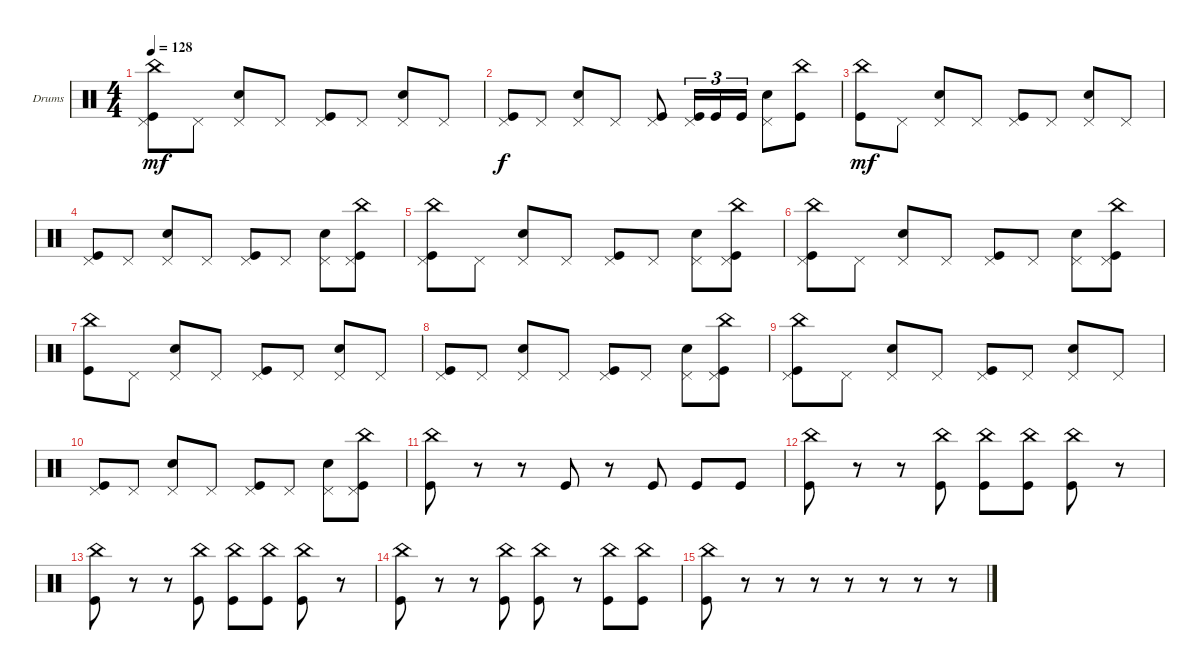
\defaultSystemsLayout 4
\bracketExtendMode groupsimilarinstruments
\firstSystemTrackNameOrientation horizontal
\otherSystemsTrackNameOrientation horizontal
\track ("Drumkit" "Drums") {instrument percussion}
\staff {score}
\articulation defaults
\ts (4 4)
\tempo 128
\clef neutral
\ks c
("China (hit)" "Pedal Hi-Hat (hit)" "Kick (hit)").8{dy mf} "Pedal Hi-Hat (hit)".8 ("Pedal Hi-Hat (hit)" "Snare (hit) 2").8 "Pedal Hi-Hat (hit)".8 ("Pedal Hi-Hat (hit)" "Kick (hit)").8 "Pedal Hi-Hat (hit)".8 ("Pedal Hi-Hat (hit)" "Snare (hit) 2").8 "Pedal Hi-Hat (hit)".8 |
("Kick (hit)" "Pedal Hi-Hat (hit)").8{dy f} "Pedal Hi-Hat (hit)".8 ("Pedal Hi-Hat (hit)" "Snare (hit) 2").8 "Pedal Hi-Hat (hit)".8 ("Kick (hit)" "Pedal Hi-Hat (hit)").8 ("Kick (hit)" "Pedal Hi-Hat (hit)").16{tu (3 2)} "Kick (hit)".16{tu (3 2)} "Kick (hit)".16{tu (3 2)} ("Snare (hit) 2" "Pedal Hi-Hat (hit)").8 ("Kick (hit)" "China (hit)").8 |
("Kick (hit)" "China (hit)").8{dy mf} "Pedal Hi-Hat (hit)".8 ("Snare (hit) 2" "Pedal Hi-Hat (hit)").8 "Pedal Hi-Hat (hit)".8 ("Pedal Hi-Hat (hit)" "Kick (hit)").8 "Pedal Hi-Hat (hit)".8 ("Pedal Hi-Hat (hit)" "Snare (hit) 2").8 "Pedal Hi-Hat (hit)".8 |
("Kick (hit)" "Pedal Hi-Hat (hit)").8 "Pedal Hi-Hat (hit)".8 ("Pedal Hi-Hat (hit)" "Snare (hit) 2").8 "Pedal Hi-Hat (hit)".8 ("Pedal Hi-Hat (hit)" "Kick (hit)").8 "Pedal Hi-Hat (hit)".8 ("Pedal Hi-Hat (hit)" "Snare (hit) 2").8 ("Pedal Hi-Hat (hit)" "China (hit)" "Kick (hit)").8 |
("China (hit)" "Pedal Hi-Hat (hit)" "Kick (hit)").8 "Pedal Hi-Hat (hit)".8 ("Pedal Hi-Hat (hit)" "Snare (hit) 2").8 "Pedal Hi-Hat (hit)".8 ("Pedal Hi-Hat (hit)" "Kick (hit)").8 "Pedal Hi-Hat (hit)".8 ("Pedal Hi-Hat (hit)" "Snare (hit) 2").8 ("Pedal Hi-Hat (hit)" "Kick (hit)" "China (hit)").8 |
("Kick (hit)" "Pedal Hi-Hat (hit)" "China (hit)").8 "Pedal Hi-Hat (hit)".8 ("Pedal Hi-Hat (hit)" "Snare (hit) 2").8 "Pedal Hi-Hat (hit)".8 ("Pedal Hi-Hat (hit)" "Kick (hit)").8 "Pedal Hi-Hat (hit)".8 ("Pedal Hi-Hat (hit)" "Snare (hit) 2").8 ("Pedal Hi-Hat (hit)" "China (hit)" "Kick (hit)").8 |
("Kick (hit)" "China (hit)").8 "Pedal Hi-Hat (hit)".8 ("Snare (hit) 2" "Pedal Hi-Hat (hit)").8 "Pedal Hi-Hat (hit)".8 ("Pedal Hi-Hat (hit)" "Kick (hit)").8 "Pedal Hi-Hat (hit)".8 ("Pedal Hi-Hat (hit)" "Snare (hit) 2").8 "Pedal Hi-Hat (hit)".8 |
("Kick (hit)" "Pedal Hi-Hat (hit)").8 "Pedal Hi-Hat (hit)".8 ("Pedal Hi-Hat (hit)" "Snare (hit) 2").8 "Pedal Hi-Hat (hit)".8 ("Pedal Hi-Hat (hit)" "Kick (hit)").8 "Pedal Hi-Hat (hit)".8 ("Pedal Hi-Hat (hit)" "Snare (hit) 2").8 ("Pedal Hi-Hat (hit)" "China (hit)" "Kick (hit)").8 |
("China (hit)" "Pedal Hi-Hat (hit)" "Kick (hit)").8 "Pedal Hi-Hat (hit)".8 ("Pedal Hi-Hat (hit)" "Snare (hit) 2").8 "Pedal Hi-Hat (hit)".8 ("Pedal Hi-Hat (hit)" "Kick (hit)").8 "Pedal Hi-Hat (hit)".8 ("Pedal Hi-Hat (hit)" "Snare (hit) 2").8 "Pedal Hi-Hat (hit)".8 |
("Kick (hit)" "Pedal Hi-Hat (hit)").8 "Pedal Hi-Hat (hit)".8 ("Pedal Hi-Hat (hit)" "Snare (hit) 2").8 "Pedal Hi-Hat (hit)".8 ("Pedal Hi-Hat (hit)" "Kick (hit)").8 "Pedal Hi-Hat (hit)".8 ("Pedal Hi-Hat (hit)" "Snare (hit) 2").8 ("Pedal Hi-Hat (hit)" "China (hit)" "Kick (hit)").8 |
("Kick (hit)" "China (hit)").8 r.8 r.8 "Kick (hit)".8 r.8 "Kick (hit)".8 "Kick (hit)".8 "Kick (hit)".8 |
("Kick (hit)" "China (hit)").8 r.8 r.8 ("Kick (hit)" "China (hit)").8 ("Kick (hit)" "China (hit)").8 ("Kick (hit)" "China (hit)").8 ("Kick (hit)" "China (hit)").8 r.8 |
("China (hit)" "Kick (hit)").8 r.8 r.8 ("China (hit)" "Kick (hit)").8 ("China (hit)" "Kick (hit)").8 ("China (hit)" "Kick (hit)").8 ("China (hit)" "Kick (hit)").8 r.8 |
("China (hit)" "Kick (hit)").8 r.8 r.8 ("China (hit)" "Kick (hit)").8 ("China (hit)" "Kick (hit)").8 r.8 ("China (hit)" "Kick (hit)").8 ("China (hit)" "Kick (hit)").8 |
("China (hit)" "Kick (hit)").8 r.8 r.8 r.8 r.8 r.8 r.8 r.8
